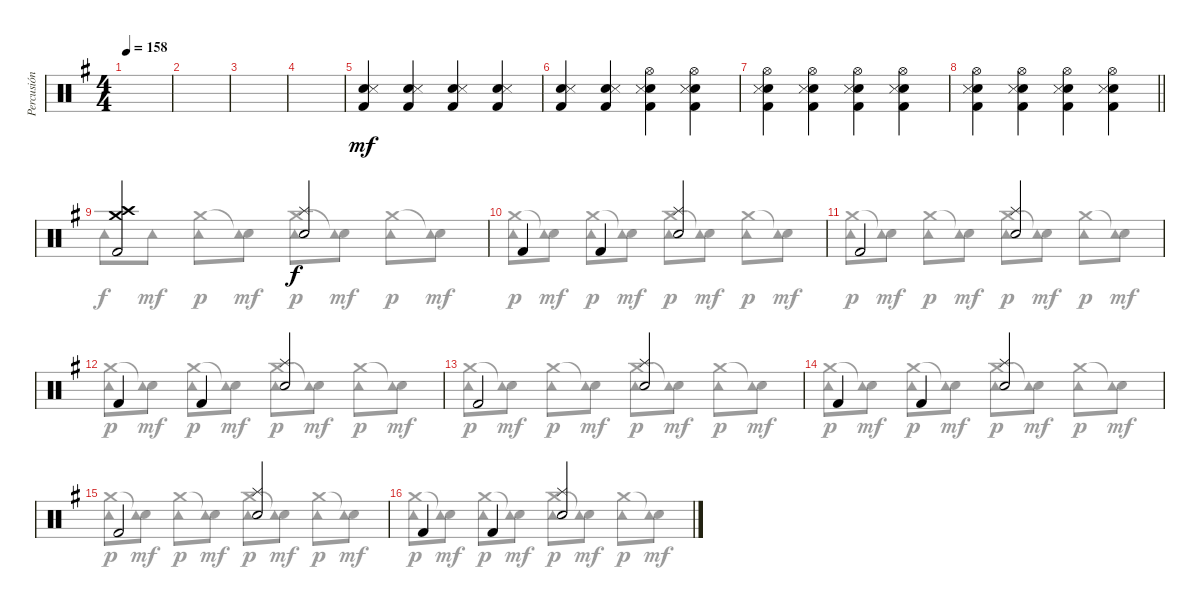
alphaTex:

\track ("Percusión" "Percusión") {instrument percussion}
\staff {score}
\articulation defaults
\voice
\ts (4 4)
\tempo 158
\clef neutral
\ks g
|
|
|
|
("Hand Clap (hit)" "Snare (side stick) 3" "Kick (hit) 2").4{dy mf} ("Hand Clap (hit)" "Snare (side stick) 3" "Kick (hit) 2").4 ("Hand Clap (hit)" "Snare (side stick) 3" "Kick (hit) 2").4 ("Hand Clap (hit)" "Snare (side stick) 3" "Kick (hit) 2").4 |
("Hand Clap (hit)" "Snare (side stick) 3" "Kick (hit) 2").4 ("Hand Clap (hit)" "Snare (side stick) 3" "Kick (hit) 2").4 ("Hi-Hat (open)" "Hand Clap (hit)" "Snare (side stick) 3" "Kick (hit) 2").4 ("Hi-Hat (open)" "Hand Clap (hit)" "Snare (side stick) 3" "Kick (hit) 2").4 |
("Hi-Hat (open)" "Hand Clap (hit)" "Snare (side stick) 3" "Kick (hit) 2").4 ("Hi-Hat (open)" "Hand Clap (hit)" "Snare (side stick) 3" "Kick (hit) 2").4 ("Hi-Hat (open)" "Hand Clap (hit)" "Snare (side stick) 3" "Kick (hit) 2").4 ("Hi-Hat (open)" "Hand Clap (hit)" "Snare (side stick) 3" "Kick (hit) 2").4 |
\barLineRight lightlight
("Hi-Hat (open)" "Hand Clap (hit)" "Snare (side stick) 3" "Kick (hit) 2").4 ("Hi-Hat (open)" "Hand Clap (hit)" "Snare (side stick) 3" "Kick (hit) 2").4 ("Hi-Hat (open)" "Hand Clap (hit)" "Snare (side stick) 3" "Kick (hit) 2").4 ("Hi-Hat (open)" "Hand Clap (hit)" "Snare (side stick) 3" "Kick (hit) 2").4 |
("Crash medium (hit)" "Crash high (hit)" "Kick (hit) 2").2 ("Splash (hit)" "Snare (hit) 2").2{dy f} |
"Kick (hit) 2".4 "Kick (hit) 2".4 ("Splash (hit)" "Snare (hit) 2").2 |
"Kick (hit) 2".2 ("Splash (hit)" "Snare (hit) 2").2 |
"Kick (hit) 2".4 "Kick (hit) 2".4 ("Splash (hit)" "Snare (hit) 2").2 |
"Kick (hit) 2".2 ("Splash (hit)" "Snare (hit) 2").2 |
"Kick (hit) 2".4 "Kick (hit) 2".4 ("Splash (hit)" "Snare (hit) 2").2 |
"Kick (hit) 2".2 ("Splash (hit)" "Snare (hit) 2").2 |
"Kick (hit) 2".4 "Kick (hit) 2".4 ("Splash (hit)" "Snare (hit) 2").2
\voice
\clef neutral
\ottava regular
\simile none
\ks g
|
|
|
|
|
|
|
\barLineRight lightlight
|
"Tambourine (hit)".8{dy f} "Tambourine (hit)".8{dy mf} ("Crash medium (hit)" "Tambourine (hit)").8{dy p} ("Snare (hit)"{t} "Tambourine (hit)").8{dy mf} ("Crash medium (hit)" "Tambourine (hit)").8{dy p} ("Snare (hit)"{t} "Tambourine (hit)").8{dy mf} ("Crash medium (hit)" "Tambourine (hit)").8{dy p} ("Snare (hit)"{t} "Tambourine (hit)").8{dy mf} |
("Crash medium (hit)" "Tambourine (hit)").8{dy p} ("Snare (hit)"{t} "Tambourine (hit)").8{dy mf} ("Crash medium (hit)" "Tambourine (hit)").8{dy p} ("Snare (hit)"{t} "Tambourine (hit)").8{dy mf} ("Crash medium (hit)" "Tambourine (hit)").8{dy p} ("Snare (hit)"{t} "Tambourine (hit)").8{dy mf} ("Crash medium (hit)" "Tambourine (hit)").8{dy p} ("Snare (hit)"{t} "Tambourine (hit)").8{dy mf} |
("Crash medium (hit)" "Tambourine (hit)").8{dy p} ("Snare (hit)"{t} "Tambourine (hit)").8{dy mf} ("Crash medium (hit)" "Tambourine (hit)").8{dy p} ("Snare (hit)"{t} "Tambourine (hit)").8{dy mf} ("Crash medium (hit)" "Tambourine (hit)").8{dy p} ("Snare (hit)"{t} "Tambourine (hit)").8{dy mf} ("Crash medium (hit)" "Tambourine (hit)").8{dy p} ("Snare (hit)"{t} "Tambourine (hit)").8{dy mf} |
("Crash medium (hit)" "Tambourine (hit)").8{dy p} ("Snare (hit)"{t} "Tambourine (hit)").8{dy mf} ("Crash medium (hit)" "Tambourine (hit)").8{dy p} ("Snare (hit)"{t} "Tambourine (hit)").8{dy mf} ("Crash medium (hit)" "Tambourine (hit)").8{dy p} ("Snare (hit)"{t} "Tambourine (hit)").8{dy mf} ("Crash medium (hit)" "Tambourine (hit)").8{dy p} ("Snare (hit)"{t} "Tambourine (hit)").8{dy mf} |
("Crash medium (hit)" "Tambourine (hit)").8{dy p} ("Snare (hit)"{t} "Tambourine (hit)").8{dy mf} ("Crash medium (hit)" "Tambourine (hit)").8{dy p} ("Snare (hit)"{t} "Tambourine (hit)").8{dy mf} ("Crash medium (hit)" "Tambourine (hit)").8{dy p} ("Snare (hit)"{t} "Tambourine (hit)").8{dy mf} ("Crash medium (hit)" "Tambourine (hit)").8{dy p} ("Snare (hit)"{t} "Tambourine (hit)").8{dy mf} |
("Crash medium (hit)" "Tambourine (hit)").8{dy p} ("Snare (hit)"{t} "Tambourine (hit)").8{dy mf} ("Crash medium (hit)" "Tambourine (hit)").8{dy p} ("Snare (hit)"{t} "Tambourine (hit)").8{dy mf} ("Crash medium (hit)" "Tambourine (hit)").8{dy p} ("Snare (hit)"{t} "Tambourine (hit)").8{dy mf} ("Crash medium (hit)" "Tambourine (hit)").8{dy p} ("Snare (hit)"{t} "Tambourine (hit)").8{dy mf} |
("Crash medium (hit)" "Tambourine (hit)").8{dy p} ("Snare (hit)"{t} "Tambourine (hit)").8{dy mf} ("Crash medium (hit)" "Tambourine (hit)").8{dy p} ("Snare (hit)"{t} "Tambourine (hit)").8{dy mf} ("Crash medium (hit)" "Tambourine (hit)").8{dy p} ("Snare (hit)"{t} "Tambourine (hit)").8{dy mf} ("Crash medium (hit)" "Tambourine (hit)").8{dy p} ("Snare (hit)"{t} "Tambourine (hit)").8{dy mf} |
("Crash medium (hit)" "Tambourine (hit)").8{dy p} ("Snare (hit)"{t} "Tambourine (hit)").8{dy mf} ("Crash medium (hit)" "Tambourine (hit)").8{dy p} ("Snare (hit)"{t} "Tambourine (hit)").8{dy mf} ("Crash medium (hit)" "Tambourine (hit)").8{dy p} ("Snare (hit)"{t} "Tambourine (hit)").8{dy mf} ("Crash medium (hit)" "Tambourine (hit)").8{dy p} ("Snare (hit)"{t} "Tambourine (hit)").8{dy mf}
